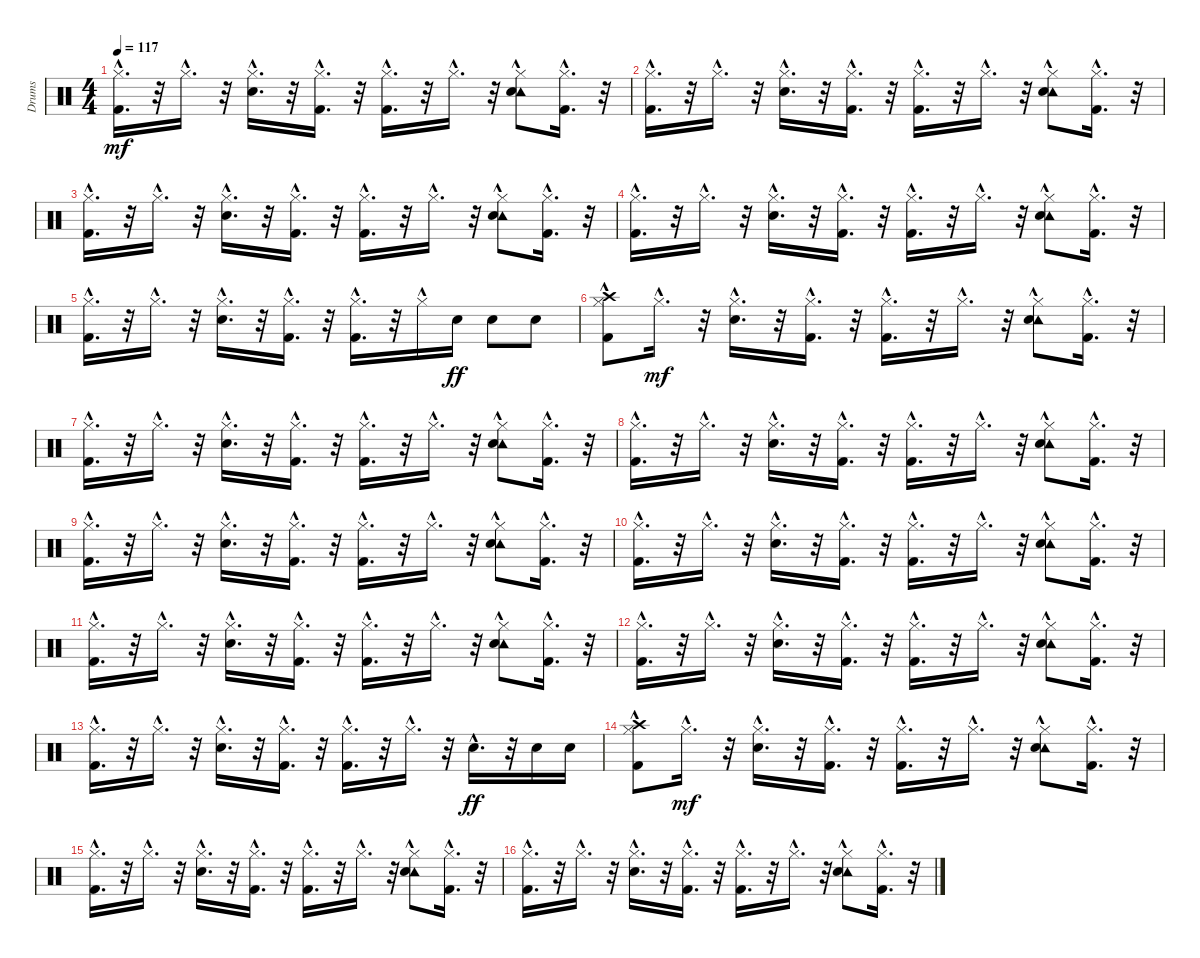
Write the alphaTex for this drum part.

\track ("Drums" "Drums") {instrument percussion}
\staff {score}
\articulation defaults
\ts (4 4)
\tempo 117
\clef neutral
\ks c
("Kick (hit) 2"{hac} "Hi-Hat (closed)"{hac}).16{d dy mf} r.32 "Hi-Hat (closed)"{hac}.16{d} r.32 ("Snare (hit) 2"{hac} "Hi-Hat (closed)"{hac}).16{d} r.32 ("Kick (hit) 2"{hac} "Hi-Hat (closed)"{hac}).16{d} r.32 ("Kick (hit) 2"{hac} "Hi-Hat (closed)"{hac}).16{d} r.32 "Hi-Hat (closed)"{hac}.16{d} r.32 ("Tambourine (hit)" "Snare (hit) 2"{hac} "Hi-Hat (closed)"{hac}).8 ("Kick (hit) 2"{hac} "Hi-Hat (closed)"{hac}).16{d} r.32 |
("Kick (hit) 2"{hac} "Hi-Hat (closed)"{hac}).16{d} r.32 "Hi-Hat (closed)"{hac}.16{d} r.32 ("Snare (hit) 2"{hac} "Hi-Hat (closed)"{hac}).16{d} r.32 ("Kick (hit) 2"{hac} "Hi-Hat (closed)"{hac}).16{d} r.32 ("Kick (hit) 2"{hac} "Hi-Hat (closed)"{hac}).16{d} r.32 "Hi-Hat (closed)"{hac}.16{d} r.32 ("Tambourine (hit)" "Snare (hit) 2"{hac} "Hi-Hat (closed)"{hac}).8 ("Kick (hit) 2"{hac} "Hi-Hat (closed)"{hac}).16{d} r.32 |
("Kick (hit) 2"{hac} "Hi-Hat (closed)"{hac}).16{d} r.32 "Hi-Hat (closed)"{hac}.16{d} r.32 ("Snare (hit) 2"{hac} "Hi-Hat (closed)"{hac}).16{d} r.32 ("Kick (hit) 2"{hac} "Hi-Hat (closed)"{hac}).16{d} r.32 ("Kick (hit) 2"{hac} "Hi-Hat (closed)"{hac}).16{d} r.32 "Hi-Hat (closed)"{hac}.16{d} r.32 ("Tambourine (hit)" "Snare (hit) 2"{hac} "Hi-Hat (closed)"{hac}).8 ("Kick (hit) 2"{hac} "Hi-Hat (closed)"{hac}).16{d} r.32 |
("Kick (hit) 2"{hac} "Hi-Hat (closed)"{hac}).16{d} r.32 "Hi-Hat (closed)"{hac}.16{d} r.32 ("Snare (hit) 2"{hac} "Hi-Hat (closed)"{hac}).16{d} r.32 ("Kick (hit) 2"{hac} "Hi-Hat (closed)"{hac}).16{d} r.32 ("Kick (hit) 2"{hac} "Hi-Hat (closed)"{hac}).16{d} r.32 "Hi-Hat (closed)"{hac}.16{d} r.32 ("Tambourine (hit)" "Snare (hit) 2"{hac} "Hi-Hat (closed)"{hac}).8 ("Kick (hit) 2"{hac} "Hi-Hat (closed)"{hac}).16{d} r.32 |
("Kick (hit) 2"{hac} "Hi-Hat (closed)"{hac}).16{d} r.32 "Hi-Hat (closed)"{hac}.16{d} r.32 ("Snare (hit) 2"{hac} "Hi-Hat (closed)"{hac}).16{d} r.32 ("Kick (hit) 2"{hac} "Hi-Hat (closed)"{hac}).16{d} r.32 ("Kick (hit) 2"{hac} "Hi-Hat (closed)"{hac}).16{d} r.32 "Hi-Hat (closed)"{hac}.16 "Snare (hit) 2".16{dy ff} "Snare (hit) 2".8 "Snare (hit) 2".8 |
("Kick (hit) 2"{hac} "Hi-Hat (closed)"{hac} "Crash high (hit)").8 "Hi-Hat (closed)"{hac}.16{d dy mf} r.32 ("Snare (hit) 2"{hac} "Hi-Hat (closed)"{hac}).16{d} r.32 ("Kick (hit) 2"{hac} "Hi-Hat (closed)"{hac}).16{d} r.32 ("Kick (hit) 2"{hac} "Hi-Hat (closed)"{hac}).16{d} r.32 "Hi-Hat (closed)"{hac}.16{d} r.32 ("Tambourine (hit)" "Snare (hit) 2"{hac} "Hi-Hat (closed)"{hac}).8 ("Kick (hit) 2"{hac} "Hi-Hat (closed)"{hac}).16{d} r.32 |
("Kick (hit) 2"{hac} "Hi-Hat (closed)"{hac}).16{d} r.32 "Hi-Hat (closed)"{hac}.16{d} r.32 ("Snare (hit) 2"{hac} "Hi-Hat (closed)"{hac}).16{d} r.32 ("Kick (hit) 2"{hac} "Hi-Hat (closed)"{hac}).16{d} r.32 ("Kick (hit) 2"{hac} "Hi-Hat (closed)"{hac}).16{d} r.32 "Hi-Hat (closed)"{hac}.16{d} r.32 ("Tambourine (hit)" "Snare (hit) 2"{hac} "Hi-Hat (closed)"{hac}).8 ("Kick (hit) 2"{hac} "Hi-Hat (closed)"{hac}).16{d} r.32 |
("Kick (hit) 2"{hac} "Hi-Hat (closed)"{hac}).16{d} r.32 "Hi-Hat (closed)"{hac}.16{d} r.32 ("Snare (hit) 2"{hac} "Hi-Hat (closed)"{hac}).16{d} r.32 ("Kick (hit) 2"{hac} "Hi-Hat (closed)"{hac}).16{d} r.32 ("Kick (hit) 2"{hac} "Hi-Hat (closed)"{hac}).16{d} r.32 "Hi-Hat (closed)"{hac}.16{d} r.32 ("Tambourine (hit)" "Snare (hit) 2"{hac} "Hi-Hat (closed)"{hac}).8 ("Kick (hit) 2"{hac} "Hi-Hat (closed)"{hac}).16{d} r.32 |
("Kick (hit) 2"{hac} "Hi-Hat (closed)"{hac}).16{d} r.32 "Hi-Hat (closed)"{hac}.16{d} r.32 ("Snare (hit) 2"{hac} "Hi-Hat (closed)"{hac}).16{d} r.32 ("Kick (hit) 2"{hac} "Hi-Hat (closed)"{hac}).16{d} r.32 ("Kick (hit) 2"{hac} "Hi-Hat (closed)"{hac}).16{d} r.32 "Hi-Hat (closed)"{hac}.16{d} r.32 ("Tambourine (hit)" "Snare (hit) 2"{hac} "Hi-Hat (closed)"{hac}).8 ("Kick (hit) 2"{hac} "Hi-Hat (closed)"{hac}).16{d} r.32 |
("Kick (hit) 2"{hac} "Hi-Hat (closed)"{hac}).16{d} r.32 "Hi-Hat (closed)"{hac}.16{d} r.32 ("Snare (hit) 2"{hac} "Hi-Hat (closed)"{hac}).16{d} r.32 ("Kick (hit) 2"{hac} "Hi-Hat (closed)"{hac}).16{d} r.32 ("Kick (hit) 2"{hac} "Hi-Hat (closed)"{hac}).16{d} r.32 "Hi-Hat (closed)"{hac}.16{d} r.32 ("Tambourine (hit)" "Snare (hit) 2"{hac} "Hi-Hat (closed)"{hac}).8 ("Kick (hit) 2"{hac} "Hi-Hat (closed)"{hac}).16{d} r.32 |
("Kick (hit) 2"{hac} "Hi-Hat (closed)"{hac}).16{d} r.32 "Hi-Hat (closed)"{hac}.16{d} r.32 ("Snare (hit) 2"{hac} "Hi-Hat (closed)"{hac}).16{d} r.32 ("Kick (hit) 2"{hac} "Hi-Hat (closed)"{hac}).16{d} r.32 ("Kick (hit) 2"{hac} "Hi-Hat (closed)"{hac}).16{d} r.32 "Hi-Hat (closed)"{hac}.16{d} r.32 ("Tambourine (hit)" "Snare (hit) 2"{hac} "Hi-Hat (closed)"{hac}).8 ("Kick (hit) 2"{hac} "Hi-Hat (closed)"{hac}).16{d} r.32 |
("Kick (hit) 2"{hac} "Hi-Hat (closed)"{hac}).16{d} r.32 "Hi-Hat (closed)"{hac}.16{d} r.32 ("Snare (hit) 2"{hac} "Hi-Hat (closed)"{hac}).16{d} r.32 ("Kick (hit) 2"{hac} "Hi-Hat (closed)"{hac}).16{d} r.32 ("Kick (hit) 2"{hac} "Hi-Hat (closed)"{hac}).16{d} r.32 "Hi-Hat (closed)"{hac}.16{d} r.32 ("Tambourine (hit)" "Snare (hit) 2"{hac} "Hi-Hat (closed)"{hac}).8 ("Kick (hit) 2"{hac} "Hi-Hat (closed)"{hac}).16{d} r.32 |
("Kick (hit) 2"{hac} "Hi-Hat (closed)"{hac}).16{d} r.32 "Hi-Hat (closed)"{hac}.16{d} r.32 ("Snare (hit) 2"{hac} "Hi-Hat (closed)"{hac}).16{d} r.32 ("Kick (hit) 2"{hac} "Hi-Hat (closed)"{hac}).16{d} r.32 ("Kick (hit) 2"{hac} "Hi-Hat (closed)"{hac}).16{d} r.32 "Hi-Hat (closed)"{hac}.16{d} r.32 "Snare (hit) 2"{hac}.16{d dy ff} r.32 "Snare (hit) 2".16 "Snare (hit) 2".16 |
("Kick (hit) 2"{hac} "Hi-Hat (closed)"{hac} "Crash high (hit)").8 "Hi-Hat (closed)"{hac}.16{d dy mf} r.32 ("Snare (hit) 2"{hac} "Hi-Hat (closed)"{hac}).16{d} r.32 ("Kick (hit) 2"{hac} "Hi-Hat (closed)"{hac}).16{d} r.32 ("Kick (hit) 2"{hac} "Hi-Hat (closed)"{hac}).16{d} r.32 "Hi-Hat (closed)"{hac}.16{d} r.32 ("Tambourine (hit)" "Snare (hit) 2"{hac} "Hi-Hat (closed)"{hac}).8 ("Kick (hit) 2"{hac} "Hi-Hat (closed)"{hac}).16{d} r.32 |
("Kick (hit) 2"{hac} "Hi-Hat (closed)"{hac}).16{d} r.32 "Hi-Hat (closed)"{hac}.16{d} r.32 ("Snare (hit) 2"{hac} "Hi-Hat (closed)"{hac}).16{d} r.32 ("Kick (hit) 2"{hac} "Hi-Hat (closed)"{hac}).16{d} r.32 ("Kick (hit) 2"{hac} "Hi-Hat (closed)"{hac}).16{d} r.32 "Hi-Hat (closed)"{hac}.16{d} r.32 ("Tambourine (hit)" "Snare (hit) 2"{hac} "Hi-Hat (closed)"{hac}).8 ("Kick (hit) 2"{hac} "Hi-Hat (closed)"{hac}).16{d} r.32 |
("Kick (hit) 2"{hac} "Hi-Hat (closed)"{hac}).16{d} r.32 "Hi-Hat (closed)"{hac}.16{d} r.32 ("Snare (hit) 2"{hac} "Hi-Hat (closed)"{hac}).16{d} r.32 ("Kick (hit) 2"{hac} "Hi-Hat (closed)"{hac}).16{d} r.32 ("Kick (hit) 2"{hac} "Hi-Hat (closed)"{hac}).16{d} r.32 "Hi-Hat (closed)"{hac}.16{d} r.32 ("Tambourine (hit)" "Snare (hit) 2"{hac} "Hi-Hat (closed)"{hac}).8 ("Kick (hit) 2"{hac} "Hi-Hat (closed)"{hac}).16{d} r.32
